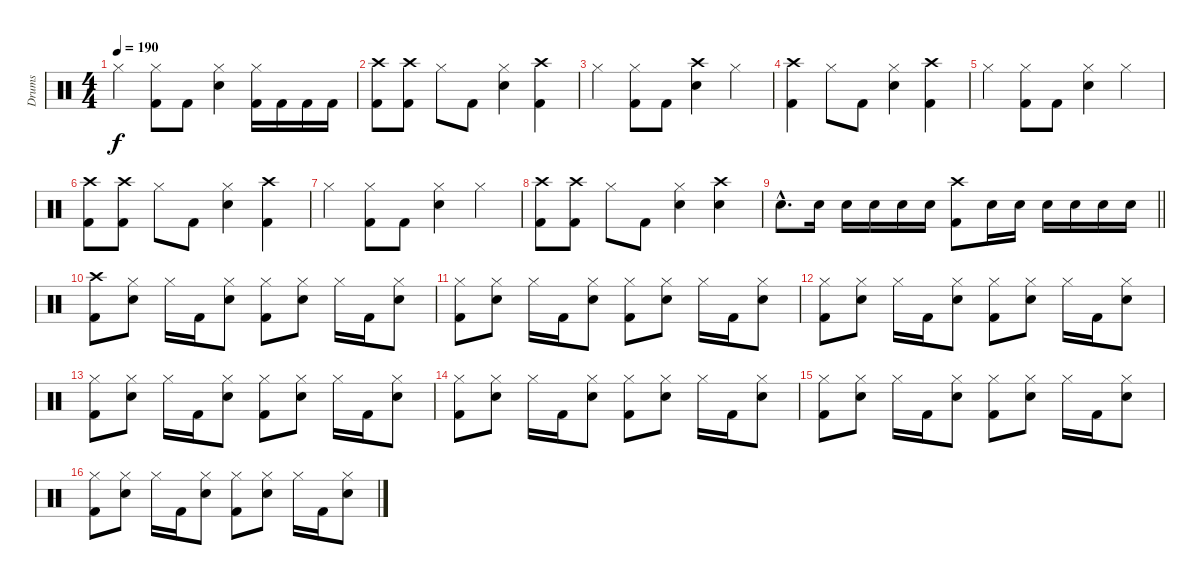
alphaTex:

\track ("Drums" "Drums") {instrument percussion}
\staff {score}
\articulation defaults
\ts (4 4)
\tempo 190
\clef neutral
\ks c "Hi-Hat (closed)".4{dy f}
("Hi-Hat (closed)" "Kick (hit) 2").8 "Kick (hit) 2".8 ("Hi-Hat (closed)" "Snare (hit) 2").4 ("Hi-Hat (closed)" "Kick (hit) 2").16 "Kick (hit) 2".16 "Kick (hit) 2".16 "Kick (hit) 2".16 |
("Crash high (hit)" "Kick (hit) 2").8 ("Crash high (hit)" "Kick (hit) 2").8 "Hi-Hat (closed)".8 "Kick (hit) 2".8 ("Hi-Hat (closed)" "Snare (hit) 2").4 ("Crash high (hit)" "Kick (hit) 2").4 |
"Hi-Hat (closed)".4 ("Hi-Hat (closed)" "Kick (hit) 2").8 "Kick (hit) 2".8 ("Crash high (hit)" "Snare (hit) 2").4 "Hi-Hat (closed)".4 |
("Crash high (hit)" "Kick (hit) 2").4 "Hi-Hat (closed)".8 "Kick (hit) 2".8 ("Hi-Hat (closed)" "Snare (hit) 2").4 ("Crash high (hit)" "Kick (hit) 2").4 |
"Hi-Hat (closed)".4 ("Hi-Hat (closed)" "Kick (hit) 2").8 "Kick (hit) 2".8 ("Hi-Hat (closed)" "Snare (hit) 2").4 "Hi-Hat (closed)".4 |
("Crash high (hit)" "Kick (hit) 2").8 ("Crash high (hit)" "Kick (hit) 2").8 "Hi-Hat (closed)".8 "Kick (hit) 2".8 ("Hi-Hat (closed)" "Snare (hit) 2").4 ("Crash high (hit)" "Kick (hit) 2").4 |
"Hi-Hat (closed)".4 ("Hi-Hat (closed)" "Kick (hit) 2").8 "Kick (hit) 2".8 ("Hi-Hat (closed)" "Snare (hit) 2").4 "Hi-Hat (closed)".4 |
("Crash high (hit)" "Kick (hit) 2").8 ("Crash high (hit)" "Kick (hit) 2").8 "Hi-Hat (closed)".8 "Kick (hit) 2".8 ("Hi-Hat (closed)" "Snare (hit) 2").4 ("Crash high (hit)" "Snare (hit) 2").4 |
\barLineRight lightlight "Snare (hit) 2"{hac}.8{d} "Snare (hit) 2".16 "Snare (hit) 2".16 "Snare (hit) 2".16 "Snare (hit) 2".16 "Snare (hit) 2".16
("Crash high (hit)" "Kick (hit) 2").8 "Snare (hit) 2".16 "Snare (hit) 2".16 "Snare (hit) 2".16 "Snare (hit) 2".16 "Snare (hit) 2".16 "Snare (hit) 2".16 |
("Crash high (hit)" "Kick (hit) 2").8 ("Hi-Hat (closed)" "Snare (hit) 2").8 "Hi-Hat (closed)".16 "Kick (hit) 2".16 ("Hi-Hat (closed)" "Snare (hit) 2").8 ("Hi-Hat (closed)" "Kick (hit) 2").8 ("Hi-Hat (closed)" "Snare (hit) 2").8 "Hi-Hat (closed)".16 "Kick (hit) 2".16 ("Hi-Hat (closed)" "Snare (hit) 2").8 |
("Hi-Hat (closed)" "Kick (hit) 2").8 ("Hi-Hat (closed)" "Snare (hit) 2").8 "Hi-Hat (closed)".16 "Kick (hit) 2".16 ("Hi-Hat (closed)" "Snare (hit) 2").8 ("Hi-Hat (closed)" "Kick (hit) 2").8 ("Hi-Hat (closed)" "Snare (hit) 2").8 "Hi-Hat (closed)".16 "Kick (hit) 2".16 ("Hi-Hat (closed)" "Snare (hit) 2").8 |
("Hi-Hat (closed)" "Kick (hit) 2").8 ("Hi-Hat (closed)" "Snare (hit) 2").8 "Hi-Hat (closed)".16 "Kick (hit) 2".16 ("Hi-Hat (closed)" "Snare (hit) 2").8 ("Hi-Hat (closed)" "Kick (hit) 2").8 ("Hi-Hat (closed)" "Snare (hit) 2").8 "Hi-Hat (closed)".16 "Kick (hit) 2".16 ("Hi-Hat (closed)" "Snare (hit) 2").8 |
("Hi-Hat (closed)" "Kick (hit) 2").8 ("Hi-Hat (closed)" "Snare (hit) 2").8 "Hi-Hat (closed)".16 "Kick (hit) 2".16 ("Hi-Hat (closed)" "Snare (hit) 2").8 ("Hi-Hat (closed)" "Kick (hit) 2").8 ("Hi-Hat (closed)" "Snare (hit) 2").8 "Hi-Hat (closed)".16 "Kick (hit) 2".16 ("Hi-Hat (closed)" "Snare (hit) 2").8 |
("Hi-Hat (closed)" "Kick (hit) 2").8 ("Hi-Hat (closed)" "Snare (hit) 2").8 "Hi-Hat (closed)".16 "Kick (hit) 2".16 ("Hi-Hat (closed)" "Snare (hit) 2").8 ("Hi-Hat (closed)" "Kick (hit) 2").8 ("Hi-Hat (closed)" "Snare (hit) 2").8 "Hi-Hat (closed)".16 "Kick (hit) 2".16 ("Hi-Hat (closed)" "Snare (hit) 2").8 |
("Hi-Hat (closed)" "Kick (hit) 2").8 ("Hi-Hat (closed)" "Snare (hit) 2").8 "Hi-Hat (closed)".16 "Kick (hit) 2".16 ("Hi-Hat (closed)" "Snare (hit) 2").8 ("Hi-Hat (closed)" "Kick (hit) 2").8 ("Hi-Hat (closed)" "Snare (hit) 2").8 "Hi-Hat (closed)".16 "Kick (hit) 2".16 ("Hi-Hat (closed)" "Snare (hit) 2").8 |
("Hi-Hat (closed)" "Kick (hit) 2").8 ("Hi-Hat (closed)" "Snare (hit) 2").8 "Hi-Hat (closed)".16 "Kick (hit) 2".16 ("Hi-Hat (closed)" "Snare (hit) 2").8 ("Hi-Hat (closed)" "Kick (hit) 2").8 ("Hi-Hat (closed)" "Snare (hit) 2").8 "Hi-Hat (closed)".16 "Kick (hit) 2".16 ("Hi-Hat (closed)" "Snare (hit) 2").8
